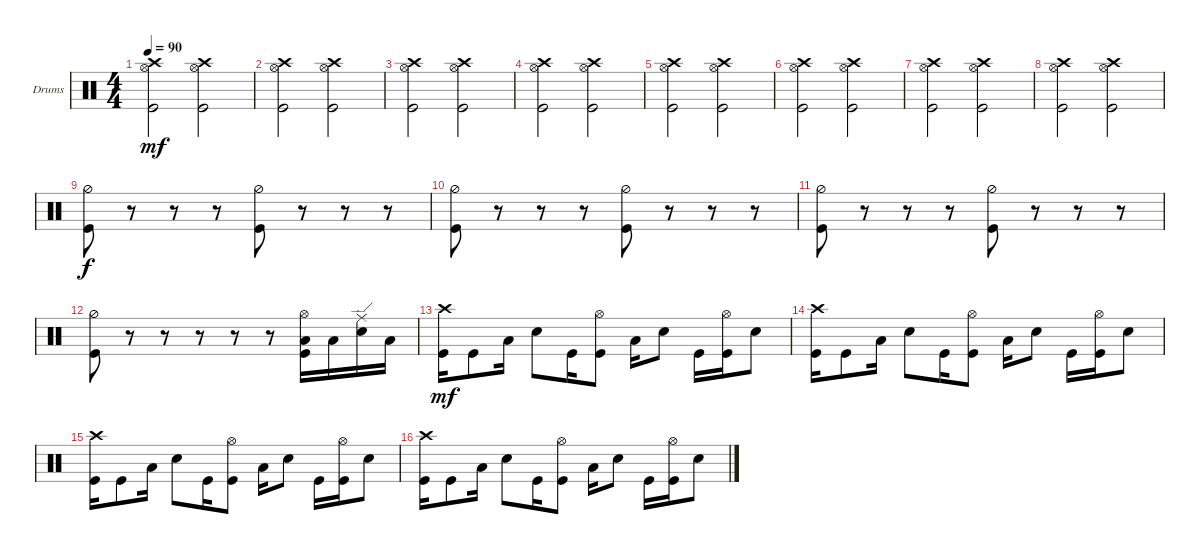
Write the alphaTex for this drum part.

\bracketExtendMode groupsimilarinstruments
\firstSystemTrackNameOrientation horizontal
\otherSystemsTrackNameOrientation horizontal
\track ("Drumkit" "Drums") {instrument percussion}
\staff {score}
\articulation defaults
\ts (4 4)
\tempo 90
\clef neutral
\scale
0.333333
\ks c
("Hi-Hat (open)" "Crash high (hit)" "Kick (hit)").2{dy mf} ("Hi-Hat (open)" "Crash high (hit)" "Kick (hit)").2 |
\scale
0.333333 ("Hi-Hat (open)" "Crash high (hit)" "Kick (hit)").2 ("Hi-Hat (open)" "Crash high (hit)" "Kick (hit)").2 |
\scale
0.333333 ("Hi-Hat (open)" "Crash high (hit)" "Kick (hit)").2 ("Hi-Hat (open)" "Crash high (hit)" "Kick (hit)").2 |
\scale
0.333333 ("Hi-Hat (open)" "Crash high (hit)" "Kick (hit)").2 ("Hi-Hat (open)" "Crash high (hit)" "Kick (hit)").2 |
\scale
0.333333 ("Hi-Hat (open)" "Crash high (hit)" "Kick (hit)").2 ("Hi-Hat (open)" "Crash high (hit)" "Kick (hit)").2 |
\scale
0.333333 ("Hi-Hat (open)" "Crash high (hit)" "Kick (hit)").2 ("Hi-Hat (open)" "Crash high (hit)" "Kick (hit)").2 |
\scale
0.333333 ("Hi-Hat (open)" "Crash high (hit)" "Kick (hit)").2 ("Hi-Hat (open)" "Crash high (hit)" "Kick (hit)").2 |
\scale
0.333333 ("Hi-Hat (open)" "Crash high (hit)" "Kick (hit)").2 ("Hi-Hat (open)" "Crash high (hit)" "Kick (hit)").2 |
\scale
0.333333 ("Kick (hit)" "Hi-Hat (half)").8{dy f} r.8 r.8 r.8 ("Kick (hit)" "Hi-Hat (half)").8 r.8 r.8 r.8 |
\scale
0.333333 ("Kick (hit)" "Hi-Hat (half)").8 r.8 r.8 r.8 ("Kick (hit)" "Hi-Hat (half)").8 r.8 r.8 r.8 |
\scale
0.333333 ("Kick (hit)" "Hi-Hat (half)").8 r.8 r.8 r.8 ("Kick (hit)" "Hi-Hat (half)").8 r.8 r.8 r.8 |
\scale
0.333333 ("Kick (hit)" "Hi-Hat (half)").8 r.8 r.8 r.8 r.8 r.8 ("Low Tom (hit)" "Kick (hit)" "Hi-Hat (open)").16 "Low Tom (hit)".16 ("Snare (hit) 2" "Ride (edge)").16 "Low Tom (hit)".16 |
\scale
0.333333 ("Kick (hit)" "Crash high (hit)").16{dy mf} "Kick (hit)".8 "Low Tom (hit)".16 "Snare (hit) 2".8 "Kick (hit)".16 ("Kick (hit)" "Hi-Hat (open)").8 "Low Tom (hit)".16 "Snare (hit) 2".8 "Kick (hit)".16 ("Kick (hit)" "Hi-Hat (open)").16 "Snare (hit) 2".8 |
\scale
0.333333 ("Kick (hit)" "Crash high (hit)").16 "Kick (hit)".8 "Low Tom (hit)".16 "Snare (hit) 2".8 "Kick (hit)".16 ("Kick (hit)" "Hi-Hat (open)").8 "Low Tom (hit)".16 "Snare (hit) 2".8 "Kick (hit)".16 ("Kick (hit)" "Hi-Hat (open)").16 "Snare (hit) 2".8 |
\scale
0.333333 ("Kick (hit)" "Crash high (hit)").16 "Kick (hit)".8 "Low Tom (hit)".16 "Snare (hit) 2".8 "Kick (hit)".16 ("Kick (hit)" "Hi-Hat (open)").8 "Low Tom (hit)".16 "Snare (hit) 2".8 "Kick (hit)".16 ("Kick (hit)" "Hi-Hat (open)").16 "Snare (hit) 2".8 |
\scale
0.333333 ("Kick (hit)" "Crash high (hit)").16 "Kick (hit)".8 "Low Tom (hit)".16 "Snare (hit) 2".8 "Kick (hit)".16 ("Kick (hit)" "Hi-Hat (open)").8 "Low Tom (hit)".16 "Snare (hit) 2".8 "Kick (hit)".16 ("Kick (hit)" "Hi-Hat (open)").16 "Snare (hit) 2".8
